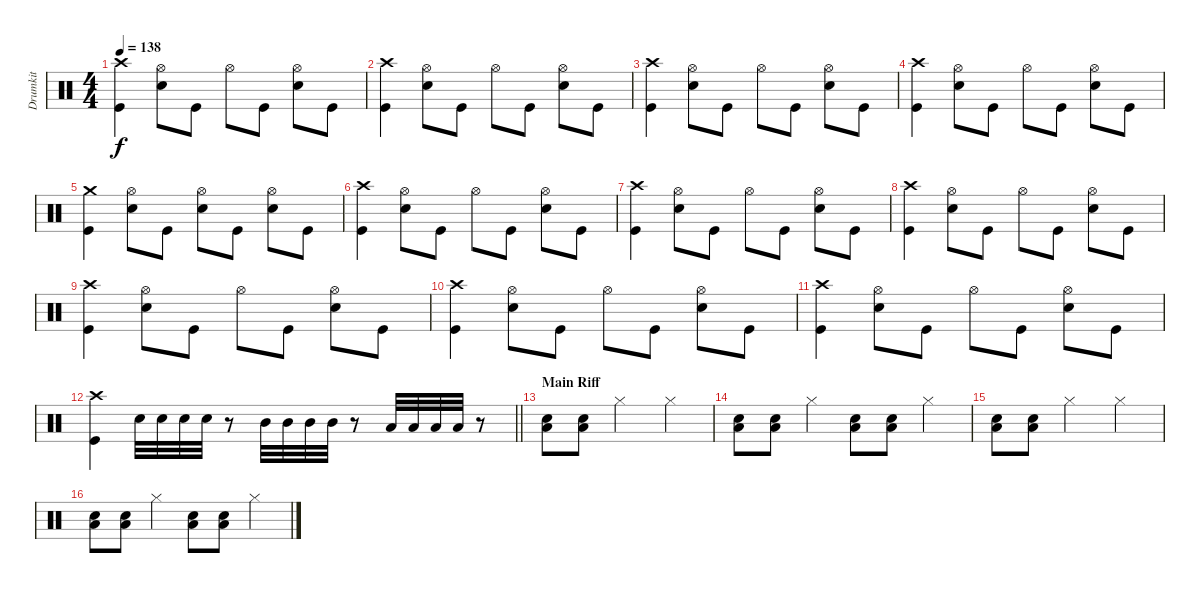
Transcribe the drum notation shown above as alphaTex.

\track ("Drumkit" "Drumkit") {instrument percussion}
\staff {score}
\articulation defaults
\ts (4 4)
\tempo 138
\clef neutral
\ks c
("Kick (hit)" "Crash high (hit)").4{dy f} ("Snare (hit) 2" "Hi-Hat (open)").8 "Kick (hit)".8 "Hi-Hat (open)".8 "Kick (hit)".8 ("Snare (hit) 2" "Hi-Hat (open)").8 "Kick (hit)".8 |
("Kick (hit)" "Crash high (hit)").4 ("Snare (hit) 2" "Hi-Hat (open)").8 "Kick (hit)".8 "Hi-Hat (open)".8 "Kick (hit)".8 ("Snare (hit) 2" "Hi-Hat (open)").8 "Kick (hit)".8 |
("Kick (hit)" "Crash high (hit)").4 ("Snare (hit) 2" "Hi-Hat (open)").8 "Kick (hit)".8 "Hi-Hat (open)".8 "Kick (hit)".8 ("Snare (hit) 2" "Hi-Hat (open)").8 "Kick (hit)".8 |
("Kick (hit)" "Crash high (hit)").4 ("Snare (hit) 2" "Hi-Hat (open)").8 "Kick (hit)".8 "Hi-Hat (open)".8 "Kick (hit)".8 ("Snare (hit) 2" "Hi-Hat (open)").8 "Kick (hit)".8 |
("Kick (hit)" "Crash medium (hit)").4 ("Snare (hit) 2" "Hi-Hat (open)").8 "Kick (hit)".8 ("Snare (hit) 2" "Hi-Hat (open)").8 "Kick (hit)".8 ("Snare (hit) 2" "Hi-Hat (open)").8 "Kick (hit)".8 |
("Kick (hit)" "Crash high (hit)").4 ("Snare (hit) 2" "Hi-Hat (open)").8 "Kick (hit)".8 "Hi-Hat (open)".8 "Kick (hit)".8 ("Snare (hit) 2" "Hi-Hat (open)").8 "Kick (hit)".8 |
("Kick (hit)" "Crash high (hit)").4 ("Snare (hit) 2" "Hi-Hat (open)").8 "Kick (hit)".8 "Hi-Hat (open)".8 "Kick (hit)".8 ("Snare (hit) 2" "Hi-Hat (open)").8 "Kick (hit)".8 |
("Kick (hit)" "Crash high (hit)").4 ("Snare (hit) 2" "Hi-Hat (open)").8 "Kick (hit)".8 "Hi-Hat (open)".8 "Kick (hit)".8 ("Snare (hit) 2" "Hi-Hat (open)").8 "Kick (hit)".8 |
("Kick (hit)" "Crash high (hit)").4 ("Snare (hit) 2" "Hi-Hat (open)").8 "Kick (hit)".8 "Hi-Hat (open)".8 "Kick (hit)".8 ("Snare (hit) 2" "Hi-Hat (open)").8 "Kick (hit)".8 |
("Kick (hit)" "Crash high (hit)").4 ("Snare (hit) 2" "Hi-Hat (open)").8 "Kick (hit)".8 "Hi-Hat (open)".8 "Kick (hit)".8 ("Snare (hit) 2" "Hi-Hat (open)").8 "Kick (hit)".8 |
("Kick (hit)" "Crash high (hit)").4 ("Snare (hit) 2" "Hi-Hat (open)").8 "Kick (hit)".8 "Hi-Hat (open)".8 "Kick (hit)".8 ("Snare (hit) 2" "Hi-Hat (open)").8 "Kick (hit)".8 |
\barLineRight lightlight
("Kick (hit)" "Crash high (hit)").4 "Snare (hit) 2".32 "Snare (hit) 2".32 "Snare (hit) 2".32 "Snare (hit) 2".32 r.8 "Mid Tom (hit)".32 "Mid Tom (hit)".32 "Mid Tom (hit)".32 "Mid Tom (hit)".32 r.8 "Low Tom (hit)".32 "Low Tom (hit)".32 "Low Tom (hit)".32 "Low Tom (hit)".32 r.8 |
\section ("" "Main Riff")
("Low Floor Tom (hit)" "Snare (hit) 2").8 ("Low Floor Tom (hit)" "Snare (hit) 2").8 "Hi-Hat (closed)".2 "Hi-Hat (closed)".4 |
("Low Floor Tom (hit)" "Snare (hit) 2").8 ("Low Floor Tom (hit)" "Snare (hit) 2").8 "Hi-Hat (closed)".4 ("Low Floor Tom (hit)" "Snare (hit) 2").8 ("Low Floor Tom (hit)" "Snare (hit) 2").8 "Hi-Hat (closed)".4 |
("Low Floor Tom (hit)" "Snare (hit) 2").8 ("Low Floor Tom (hit)" "Snare (hit) 2").8 "Hi-Hat (closed)".2 "Hi-Hat (closed)".4 |
("Low Floor Tom (hit)" "Snare (hit) 2").8 ("Low Floor Tom (hit)" "Snare (hit) 2").8 "Hi-Hat (closed)".4 ("Low Floor Tom (hit)" "Snare (hit) 2").8 ("Low Floor Tom (hit)" "Snare (hit) 2").8 "Hi-Hat (closed)".4
